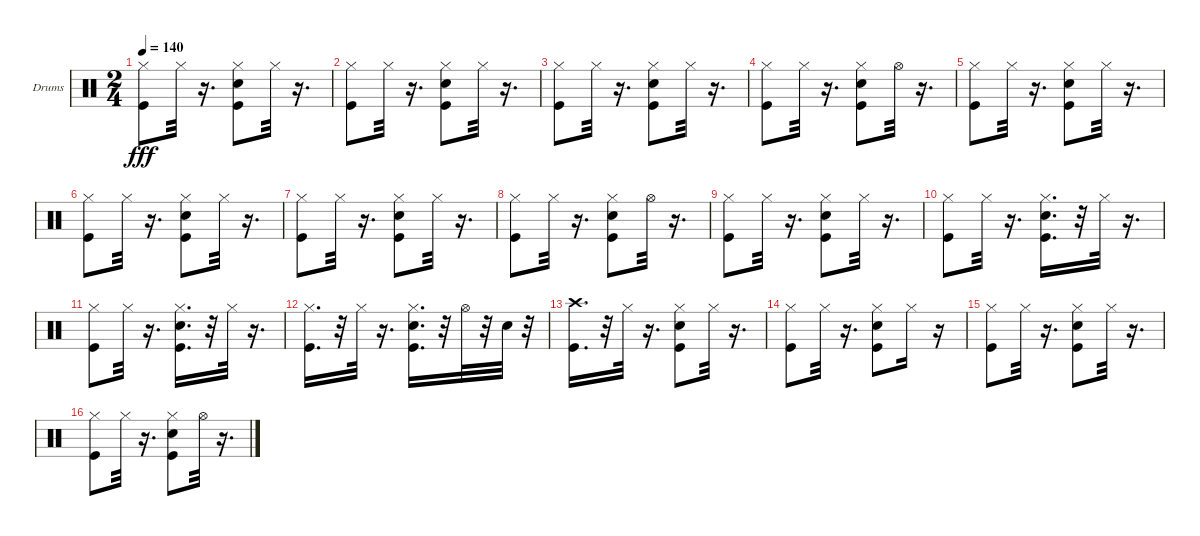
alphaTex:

\bracketExtendMode groupsimilarinstruments
\firstSystemTrackNameOrientation horizontal
\otherSystemsTrackNameOrientation horizontal
\track ("Ударные" "Drums") {instrument percussion}
\staff {score}
\articulation defaults
\ts (2 4)
\tempo 140
\clef neutral
\ks c
("Kick (hit)" "Hi-Hat (closed)").8{dy fff} "Hi-Hat (closed)".32 r.16{d} ("Snare (hit) 2" "Kick (hit)" "Hi-Hat (closed)").8 "Hi-Hat (closed)".32 r.16{d} |
("Kick (hit)" "Hi-Hat (closed)").8 "Hi-Hat (closed)".32 r.16{d} ("Snare (hit) 2" "Kick (hit)" "Hi-Hat (closed)").8 "Hi-Hat (closed)".32 r.16{d} |
("Kick (hit)" "Hi-Hat (closed)").8 "Hi-Hat (closed)".32 r.16{d} ("Snare (hit) 2" "Kick (hit)" "Hi-Hat (closed)").8 "Hi-Hat (closed)".32 r.16{d} |
("Kick (hit)" "Hi-Hat (closed)").8 "Hi-Hat (closed)".32 r.16{d} ("Kick (hit)" "Snare (hit) 2" "Hi-Hat (closed)").8 "Hi-Hat (open)".32 r.16{d} |
("Kick (hit)" "Hi-Hat (closed)").8 "Hi-Hat (closed)".32 r.16{d} ("Snare (hit) 2" "Kick (hit)" "Hi-Hat (closed)").8 "Hi-Hat (closed)".32 r.16{d} |
("Kick (hit)" "Hi-Hat (closed)").8 "Hi-Hat (closed)".32 r.16{d} ("Snare (hit) 2" "Kick (hit)" "Hi-Hat (closed)").8 "Hi-Hat (closed)".32 r.16{d} |
("Kick (hit)" "Hi-Hat (closed)").8 "Hi-Hat (closed)".32 r.16{d} ("Snare (hit) 2" "Kick (hit)" "Hi-Hat (closed)").8 "Hi-Hat (closed)".32 r.16{d} |
("Kick (hit)" "Hi-Hat (closed)").8 "Hi-Hat (closed)".32 r.16{d} ("Snare (hit) 2" "Kick (hit)" "Hi-Hat (closed)").8 "Hi-Hat (open)".32 r.16{d} |
("Kick (hit)" "Hi-Hat (closed)").8 "Hi-Hat (closed)".32 r.16{d} ("Kick (hit)" "Hi-Hat (closed)" "Snare (hit) 2").8 "Hi-Hat (closed)".32 r.16{d} |
("Kick (hit)" "Hi-Hat (closed)").8 "Hi-Hat (closed)".32 r.16{d} ("Snare (hit) 2" "Kick (hit)" "Hi-Hat (closed)").16{d} r.32 "Hi-Hat (closed)".32 r.16{d} |
("Kick (hit)" "Hi-Hat (closed)").8 "Hi-Hat (closed)".32 r.16{d} ("Kick (hit)" "Snare (hit) 2" "Hi-Hat (closed)").16{d} r.32 "Hi-Hat (closed)".32 r.16{d} |
("Hi-Hat (closed)" "Kick (hit)").16{d} r.32 "Hi-Hat (closed)".32 r.16{d} ("Hi-Hat (closed)" "Snare (hit) 2" "Kick (hit)").16{d} r.32 "Hi-Hat (open)".32 r.32 "Snare (hit) 2".32 r.32 |
("Kick (hit)" "Crash high (hit)").16{d} r.32 "Hi-Hat (closed)".32 r.16{d} ("Snare (hit) 2" "Hi-Hat (closed)" "Kick (hit)").8 "Hi-Hat (closed)".32 r.16{d} |
("Kick (hit)" "Hi-Hat (closed)").8 "Hi-Hat (closed)".32 r.16{d} ("Snare (hit) 2" "Kick (hit)" "Hi-Hat (closed)").8 "Hi-Hat (closed)".16 r.16 |
("Kick (hit)" "Hi-Hat (closed)").8 "Hi-Hat (closed)".32 r.16{d} ("Kick (hit)" "Hi-Hat (closed)" "Snare (hit) 2").8 "Hi-Hat (closed)".32 r.16{d} |
("Kick (hit)" "Hi-Hat (closed)").8 "Hi-Hat (closed)".32 r.16{d} ("Kick (hit)" "Snare (hit) 2" "Hi-Hat (closed)").8 "Hi-Hat (open)".32 r.16{d}
